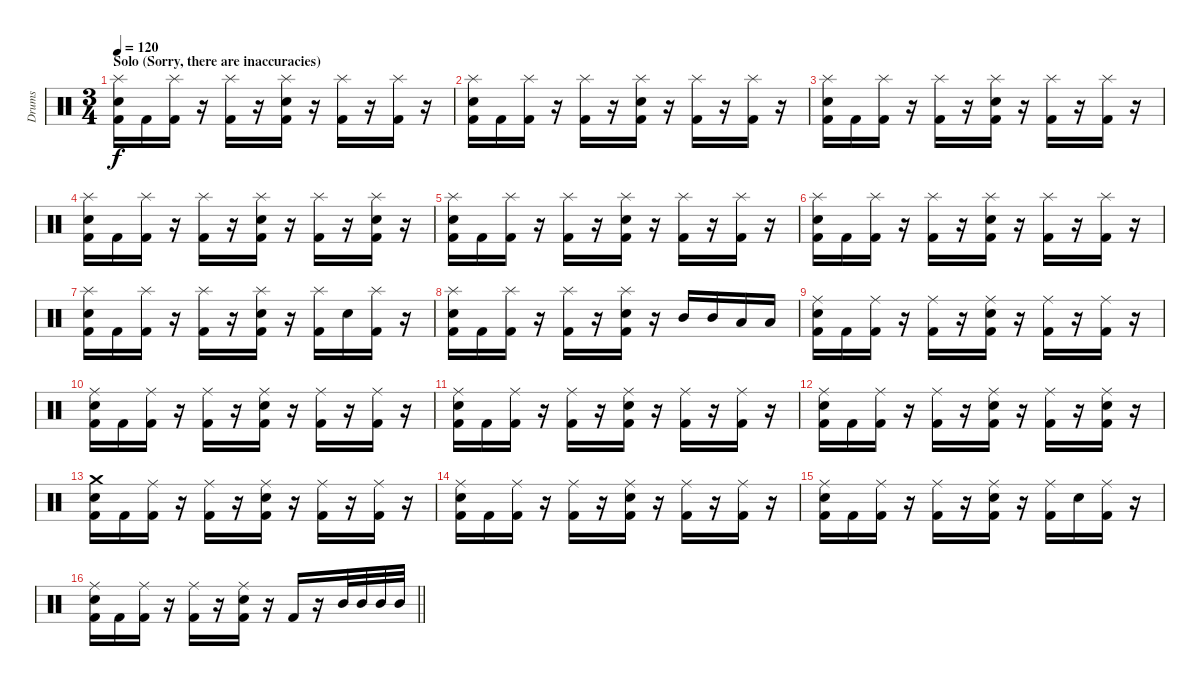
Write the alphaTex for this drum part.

\track ("Drums" "Drums") {instrument percussion}
\staff {score}
\articulation defaults
\ts (3 4)
\section ("" "Solo (Sorry, there are inaccuracies)")
\tempo 120
\clef neutral
\ks c
("Kick (hit) 2" "Splash (hit)" "Snare (hit) 2").16{dy f} "Kick (hit) 2".16 ("Kick (hit) 2" "Splash (hit)").16 r.16 ("Kick (hit) 2" "Splash (hit)").16 r.16 ("Kick (hit) 2" "Splash (hit)" "Snare (hit) 2").16 r.16 ("Kick (hit) 2" "Splash (hit)").16 r.16 ("Kick (hit) 2" "Splash (hit)").16 r.16 |
("Kick (hit) 2" "Splash (hit)" "Snare (hit) 2").16 "Kick (hit) 2".16 ("Kick (hit) 2" "Splash (hit)").16 r.16 ("Kick (hit) 2" "Splash (hit)").16 r.16 ("Kick (hit) 2" "Splash (hit)" "Snare (hit) 2").16 r.16 ("Kick (hit) 2" "Splash (hit)").16 r.16 ("Kick (hit) 2" "Splash (hit)").16 r.16 |
("Kick (hit) 2" "Splash (hit)" "Snare (hit) 2").16 "Kick (hit) 2".16 ("Kick (hit) 2" "Splash (hit)").16 r.16 ("Kick (hit) 2" "Splash (hit)").16 r.16 ("Kick (hit) 2" "Splash (hit)" "Snare (hit) 2").16 r.16 ("Kick (hit) 2" "Splash (hit)").16 r.16 ("Kick (hit) 2" "Splash (hit)").16 r.16 |
("Kick (hit) 2" "Splash (hit)" "Snare (hit) 2").16 "Kick (hit) 2".16 ("Kick (hit) 2" "Splash (hit)").16 r.16 ("Kick (hit) 2" "Splash (hit)").16 r.16 ("Kick (hit) 2" "Splash (hit)" "Snare (hit) 2").16 r.16 ("Kick (hit) 2" "Splash (hit)").16 r.16 ("Kick (hit) 2" "Splash (hit)" "Snare (hit) 2").16 r.16 |
("Kick (hit) 2" "Splash (hit)" "Snare (hit) 2").16 "Kick (hit) 2".16 ("Kick (hit) 2" "Splash (hit)").16 r.16 ("Kick (hit) 2" "Splash (hit)").16 r.16 ("Kick (hit) 2" "Splash (hit)" "Snare (hit) 2").16 r.16 ("Kick (hit) 2" "Splash (hit)").16 r.16 ("Kick (hit) 2" "Splash (hit)").16 r.16 |
("Kick (hit) 2" "Splash (hit)" "Snare (hit) 2").16 "Kick (hit) 2".16 ("Kick (hit) 2" "Splash (hit)").16 r.16 ("Kick (hit) 2" "Splash (hit)").16 r.16 ("Kick (hit) 2" "Splash (hit)" "Snare (hit) 2").16 r.16 ("Kick (hit) 2" "Splash (hit)").16 r.16 ("Kick (hit) 2" "Splash (hit)").16 r.16 |
("Kick (hit) 2" "Splash (hit)" "Snare (hit) 2").16 "Kick (hit) 2".16 ("Kick (hit) 2" "Splash (hit)").16 r.16 ("Kick (hit) 2" "Splash (hit)").16 r.16 ("Kick (hit) 2" "Splash (hit)" "Snare (hit) 2").16 r.16 ("Kick (hit) 2" "Splash (hit)").16 "Snare (hit) 2".16 ("Kick (hit) 2" "Splash (hit)").16 r.16 |
("Kick (hit) 2" "Splash (hit)" "Snare (hit) 2").16 "Kick (hit) 2".16 ("Kick (hit) 2" "Splash (hit)").16 r.16 ("Kick (hit) 2" "Splash (hit)").16 r.16 ("Kick (hit) 2" "Splash (hit)" "Snare (hit) 2").16 r.16 "Mid Tom (hit)".16 "Mid Tom (hit)".16 "Low Tom (hit)".16 "Low Tom (hit)".16 |
("Kick (hit) 2" "Ride (middle)" "Snare (hit) 2").16 "Kick (hit) 2".16 ("Kick (hit) 2" "Ride (middle)").16 r.16 ("Kick (hit) 2" "Ride (middle)").16 r.16 ("Kick (hit) 2" "Ride (middle)" "Snare (hit) 2").16 r.16 ("Kick (hit) 2" "Ride (middle)").16 r.16 ("Kick (hit) 2" "Ride (middle)").16 r.16 |
("Kick (hit) 2" "Ride (middle)" "Snare (hit) 2").16 "Kick (hit) 2".16 ("Kick (hit) 2" "Ride (middle)").16 r.16 ("Kick (hit) 2" "Ride (middle)").16 r.16 ("Kick (hit) 2" "Ride (middle)" "Snare (hit) 2").16 r.16 ("Kick (hit) 2" "Ride (middle)").16 r.16 ("Kick (hit) 2" "Ride (middle)").16 r.16 |
("Kick (hit) 2" "Ride (middle)" "Snare (hit) 2").16 "Kick (hit) 2".16 ("Kick (hit) 2" "Ride (middle)").16 r.16 ("Kick (hit) 2" "Ride (middle)").16 r.16 ("Kick (hit) 2" "Ride (middle)" "Snare (hit) 2").16 r.16 ("Kick (hit) 2" "Ride (middle)").16 r.16 ("Kick (hit) 2" "Ride (middle)").16 r.16 |
("Kick (hit) 2" "Ride (middle)" "Snare (hit) 2").16 "Kick (hit) 2".16 ("Kick (hit) 2" "Ride (middle)").16 r.16 ("Kick (hit) 2" "Ride (middle)").16 r.16 ("Kick (hit) 2" "Ride (middle)" "Snare (hit) 2").16 r.16 ("Kick (hit) 2" "Ride (middle)").16 r.16 ("Kick (hit) 2" "Ride (middle)" "Snare (hit) 2").16 r.16 |
("Kick (hit) 2" "Crash medium (hit)" "Snare (hit) 2").16 "Kick (hit) 2".16 ("Kick (hit) 2" "Ride (middle)").16 r.16 ("Kick (hit) 2" "Ride (middle)").16 r.16 ("Kick (hit) 2" "Ride (middle)" "Snare (hit) 2").16 r.16 ("Kick (hit) 2" "Ride (middle)").16 r.16 ("Kick (hit) 2" "Ride (middle)").16 r.16 |
("Kick (hit) 2" "Ride (middle)" "Snare (hit) 2").16 "Kick (hit) 2".16 ("Kick (hit) 2" "Ride (middle)").16 r.16 ("Kick (hit) 2" "Ride (middle)").16 r.16 ("Kick (hit) 2" "Ride (middle)" "Snare (hit) 2").16 r.16 ("Kick (hit) 2" "Ride (middle)").16 r.16 ("Kick (hit) 2" "Ride (middle)").16 r.16 |
("Kick (hit) 2" "Ride (middle)" "Snare (hit) 2").16 "Kick (hit) 2".16 ("Kick (hit) 2" "Ride (middle)").16 r.16 ("Kick (hit) 2" "Ride (middle)").16 r.16 ("Kick (hit) 2" "Ride (middle)" "Snare (hit) 2").16 r.16 ("Kick (hit) 2" "Ride (middle)").16 "Snare (hit) 2".16 ("Kick (hit) 2" "Ride (middle)").16 r.16 |
\barLineRight lightlight
("Kick (hit) 2" "Ride (middle)" "Snare (hit) 2").16 "Kick (hit) 2".16 ("Kick (hit) 2" "Ride (middle)").16 r.16 ("Kick (hit) 2" "Ride (middle)").16 r.16 ("Kick (hit) 2" "Ride (middle)" "Snare (hit) 2").16 r.16 "Kick (hit) 2".16 r.16 "Mid Tom (hit)".32 "Mid Tom (hit)".32 "Mid Tom (hit)".32 "Mid Tom (hit)".32
